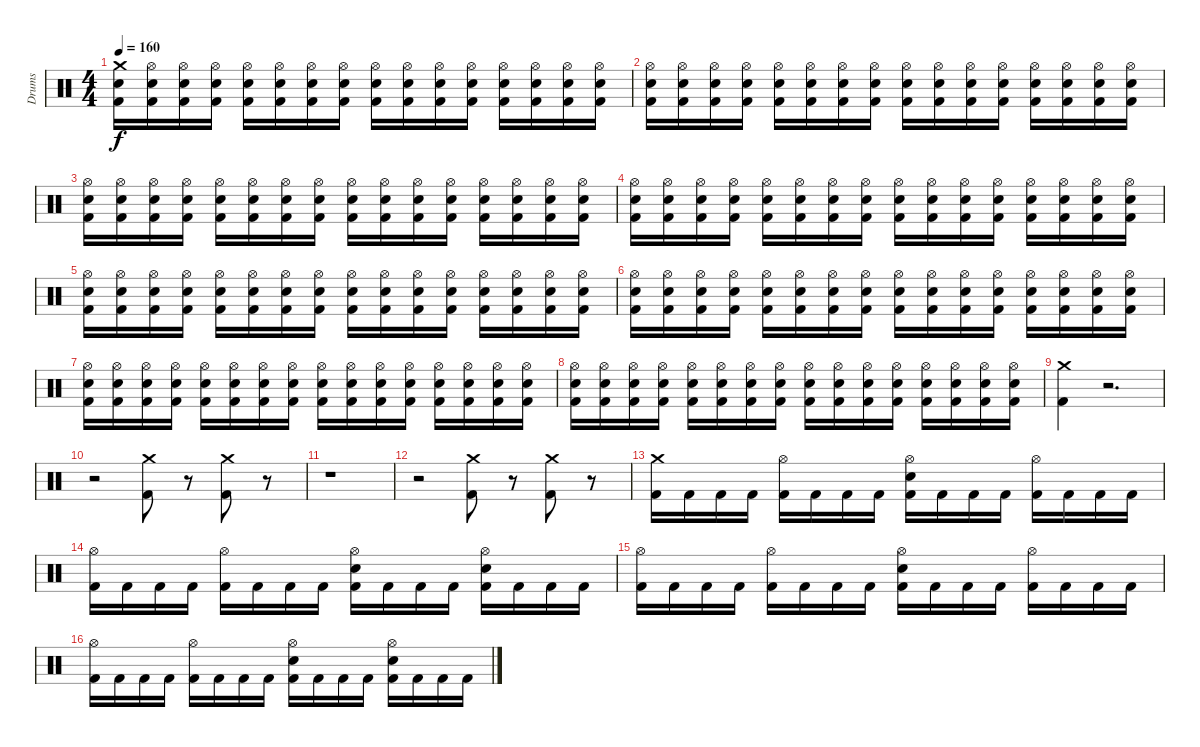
\track ("Drums" "Drums") {instrument percussion}
\staff {score}
\articulation defaults
\ts (4 4)
\tempo 160
\clef neutral
\ks c
("Crash medium (hit)" "Electric Snare (hit)" "Kick (hit) 2").16{dy f} ("Hi-Hat (open)" "Electric Snare (hit)" "Kick (hit) 2").16 ("Hi-Hat (open)" "Electric Snare (hit)" "Kick (hit) 2").16 ("Hi-Hat (open)" "Electric Snare (hit)" "Kick (hit) 2").16 ("Hi-Hat (open)" "Electric Snare (hit)" "Kick (hit) 2").16 ("Hi-Hat (open)" "Electric Snare (hit)" "Kick (hit) 2").16 ("Hi-Hat (open)" "Electric Snare (hit)" "Kick (hit) 2").16 ("Hi-Hat (open)" "Electric Snare (hit)" "Kick (hit) 2").16 ("Hi-Hat (open)" "Electric Snare (hit)" "Kick (hit) 2").16 ("Hi-Hat (open)" "Electric Snare (hit)" "Kick (hit) 2").16 ("Hi-Hat (open)" "Electric Snare (hit)" "Kick (hit) 2").16 ("Hi-Hat (open)" "Electric Snare (hit)" "Kick (hit) 2").16 ("Hi-Hat (open)" "Electric Snare (hit)" "Kick (hit) 2").16 ("Hi-Hat (open)" "Electric Snare (hit)" "Kick (hit) 2").16 ("Hi-Hat (open)" "Electric Snare (hit)" "Kick (hit) 2").16 ("Hi-Hat (open)" "Electric Snare (hit)" "Kick (hit) 2").16 |
("Hi-Hat (open)" "Electric Snare (hit)" "Kick (hit) 2").16 ("Hi-Hat (open)" "Electric Snare (hit)" "Kick (hit) 2").16 ("Hi-Hat (open)" "Electric Snare (hit)" "Kick (hit) 2").16 ("Hi-Hat (open)" "Electric Snare (hit)" "Kick (hit) 2").16 ("Hi-Hat (open)" "Electric Snare (hit)" "Kick (hit) 2").16 ("Hi-Hat (open)" "Electric Snare (hit)" "Kick (hit) 2").16 ("Hi-Hat (open)" "Electric Snare (hit)" "Kick (hit) 2").16 ("Hi-Hat (open)" "Electric Snare (hit)" "Kick (hit) 2").16 ("Hi-Hat (open)" "Electric Snare (hit)" "Kick (hit) 2").16 ("Hi-Hat (open)" "Electric Snare (hit)" "Kick (hit) 2").16 ("Hi-Hat (open)" "Electric Snare (hit)" "Kick (hit) 2").16 ("Hi-Hat (open)" "Electric Snare (hit)" "Kick (hit) 2").16 ("Hi-Hat (open)" "Electric Snare (hit)" "Kick (hit) 2").16 ("Hi-Hat (open)" "Electric Snare (hit)" "Kick (hit) 2").16 ("Hi-Hat (open)" "Electric Snare (hit)" "Kick (hit) 2").16 ("Hi-Hat (open)" "Electric Snare (hit)" "Kick (hit) 2").16 |
("Hi-Hat (open)" "Electric Snare (hit)" "Kick (hit) 2").16 ("Hi-Hat (open)" "Electric Snare (hit)" "Kick (hit) 2").16 ("Hi-Hat (open)" "Electric Snare (hit)" "Kick (hit) 2").16 ("Hi-Hat (open)" "Electric Snare (hit)" "Kick (hit) 2").16 ("Hi-Hat (open)" "Electric Snare (hit)" "Kick (hit) 2").16 ("Hi-Hat (open)" "Electric Snare (hit)" "Kick (hit) 2").16 ("Hi-Hat (open)" "Electric Snare (hit)" "Kick (hit) 2").16 ("Hi-Hat (open)" "Electric Snare (hit)" "Kick (hit) 2").16 ("Hi-Hat (open)" "Electric Snare (hit)" "Kick (hit) 2").16 ("Hi-Hat (open)" "Electric Snare (hit)" "Kick (hit) 2").16 ("Hi-Hat (open)" "Electric Snare (hit)" "Kick (hit) 2").16 ("Hi-Hat (open)" "Electric Snare (hit)" "Kick (hit) 2").16 ("Hi-Hat (open)" "Electric Snare (hit)" "Kick (hit) 2").16 ("Hi-Hat (open)" "Electric Snare (hit)" "Kick (hit) 2").16 ("Hi-Hat (open)" "Electric Snare (hit)" "Kick (hit) 2").16 ("Hi-Hat (open)" "Electric Snare (hit)" "Kick (hit) 2").16 |
("Hi-Hat (open)" "Electric Snare (hit)" "Kick (hit) 2").16 ("Hi-Hat (open)" "Electric Snare (hit)" "Kick (hit) 2").16 ("Hi-Hat (open)" "Electric Snare (hit)" "Kick (hit) 2").16 ("Hi-Hat (open)" "Electric Snare (hit)" "Kick (hit) 2").16 ("Hi-Hat (open)" "Electric Snare (hit)" "Kick (hit) 2").16 ("Hi-Hat (open)" "Electric Snare (hit)" "Kick (hit) 2").16 ("Hi-Hat (open)" "Electric Snare (hit)" "Kick (hit) 2").16 ("Hi-Hat (open)" "Electric Snare (hit)" "Kick (hit) 2").16 ("Hi-Hat (open)" "Electric Snare (hit)" "Kick (hit) 2").16 ("Hi-Hat (open)" "Electric Snare (hit)" "Kick (hit) 2").16 ("Hi-Hat (open)" "Electric Snare (hit)" "Kick (hit) 2").16 ("Hi-Hat (open)" "Electric Snare (hit)" "Kick (hit) 2").16 ("Hi-Hat (open)" "Electric Snare (hit)" "Kick (hit) 2").16 ("Hi-Hat (open)" "Electric Snare (hit)" "Kick (hit) 2").16 ("Hi-Hat (open)" "Electric Snare (hit)" "Kick (hit) 2").16 ("Hi-Hat (open)" "Electric Snare (hit)" "Kick (hit) 2").16 |
("Hi-Hat (open)" "Electric Snare (hit)" "Kick (hit) 2").16 ("Hi-Hat (open)" "Electric Snare (hit)" "Kick (hit) 2").16 ("Hi-Hat (open)" "Electric Snare (hit)" "Kick (hit) 2").16 ("Hi-Hat (open)" "Electric Snare (hit)" "Kick (hit) 2").16 ("Hi-Hat (open)" "Electric Snare (hit)" "Kick (hit) 2").16 ("Hi-Hat (open)" "Electric Snare (hit)" "Kick (hit) 2").16 ("Hi-Hat (open)" "Electric Snare (hit)" "Kick (hit) 2").16 ("Hi-Hat (open)" "Electric Snare (hit)" "Kick (hit) 2").16 ("Hi-Hat (open)" "Electric Snare (hit)" "Kick (hit) 2").16 ("Hi-Hat (open)" "Electric Snare (hit)" "Kick (hit) 2").16 ("Hi-Hat (open)" "Electric Snare (hit)" "Kick (hit) 2").16 ("Hi-Hat (open)" "Electric Snare (hit)" "Kick (hit) 2").16 ("Hi-Hat (open)" "Electric Snare (hit)" "Kick (hit) 2").16 ("Hi-Hat (open)" "Electric Snare (hit)" "Kick (hit) 2").16 ("Hi-Hat (open)" "Electric Snare (hit)" "Kick (hit) 2").16 ("Hi-Hat (open)" "Electric Snare (hit)" "Kick (hit) 2").16 |
("Hi-Hat (open)" "Electric Snare (hit)" "Kick (hit) 2").16 ("Hi-Hat (open)" "Electric Snare (hit)" "Kick (hit) 2").16 ("Hi-Hat (open)" "Electric Snare (hit)" "Kick (hit) 2").16 ("Hi-Hat (open)" "Electric Snare (hit)" "Kick (hit) 2").16 ("Hi-Hat (open)" "Electric Snare (hit)" "Kick (hit) 2").16 ("Hi-Hat (open)" "Electric Snare (hit)" "Kick (hit) 2").16 ("Hi-Hat (open)" "Electric Snare (hit)" "Kick (hit) 2").16 ("Hi-Hat (open)" "Electric Snare (hit)" "Kick (hit) 2").16 ("Hi-Hat (open)" "Electric Snare (hit)" "Kick (hit) 2").16 ("Hi-Hat (open)" "Electric Snare (hit)" "Kick (hit) 2").16 ("Hi-Hat (open)" "Electric Snare (hit)" "Kick (hit) 2").16 ("Hi-Hat (open)" "Electric Snare (hit)" "Kick (hit) 2").16 ("Hi-Hat (open)" "Electric Snare (hit)" "Kick (hit) 2").16 ("Hi-Hat (open)" "Electric Snare (hit)" "Kick (hit) 2").16 ("Hi-Hat (open)" "Electric Snare (hit)" "Kick (hit) 2").16 ("Hi-Hat (open)" "Electric Snare (hit)" "Kick (hit) 2").16 |
("Hi-Hat (open)" "Electric Snare (hit)" "Kick (hit) 2").16 ("Hi-Hat (open)" "Electric Snare (hit)" "Kick (hit) 2").16 ("Hi-Hat (open)" "Electric Snare (hit)" "Kick (hit) 2").16 ("Hi-Hat (open)" "Electric Snare (hit)" "Kick (hit) 2").16 ("Hi-Hat (open)" "Electric Snare (hit)" "Kick (hit) 2").16 ("Hi-Hat (open)" "Electric Snare (hit)" "Kick (hit) 2").16 ("Hi-Hat (open)" "Electric Snare (hit)" "Kick (hit) 2").16 ("Hi-Hat (open)" "Electric Snare (hit)" "Kick (hit) 2").16 ("Hi-Hat (open)" "Electric Snare (hit)" "Kick (hit) 2").16 ("Hi-Hat (open)" "Electric Snare (hit)" "Kick (hit) 2").16 ("Hi-Hat (open)" "Electric Snare (hit)" "Kick (hit) 2").16 ("Hi-Hat (open)" "Electric Snare (hit)" "Kick (hit) 2").16 ("Hi-Hat (open)" "Electric Snare (hit)" "Kick (hit) 2").16 ("Hi-Hat (open)" "Electric Snare (hit)" "Kick (hit) 2").16 ("Hi-Hat (open)" "Electric Snare (hit)" "Kick (hit) 2").16 ("Hi-Hat (open)" "Electric Snare (hit)" "Kick (hit) 2").16 |
("Hi-Hat (open)" "Electric Snare (hit)" "Kick (hit) 2").16 ("Hi-Hat (open)" "Electric Snare (hit)" "Kick (hit) 2").16 ("Hi-Hat (open)" "Electric Snare (hit)" "Kick (hit) 2").16 ("Hi-Hat (open)" "Electric Snare (hit)" "Kick (hit) 2").16 ("Hi-Hat (open)" "Electric Snare (hit)" "Kick (hit) 2").16 ("Hi-Hat (open)" "Electric Snare (hit)" "Kick (hit) 2").16 ("Hi-Hat (open)" "Electric Snare (hit)" "Kick (hit) 2").16 ("Hi-Hat (open)" "Electric Snare (hit)" "Kick (hit) 2").16 ("Hi-Hat (open)" "Electric Snare (hit)" "Kick (hit) 2").16 ("Hi-Hat (open)" "Electric Snare (hit)" "Kick (hit) 2").16 ("Hi-Hat (open)" "Electric Snare (hit)" "Kick (hit) 2").16 ("Hi-Hat (open)" "Electric Snare (hit)" "Kick (hit) 2").16 ("Hi-Hat (open)" "Electric Snare (hit)" "Kick (hit) 2").16 ("Hi-Hat (open)" "Electric Snare (hit)" "Kick (hit) 2").16 ("Hi-Hat (open)" "Electric Snare (hit)" "Kick (hit) 2").16 ("Hi-Hat (open)" "Electric Snare (hit)" "Kick (hit) 2").16 |
("Crash medium (hit)" "Kick (hit) 2").4 r.2{d} |
r.2 ("Crash medium (hit)" "Kick (hit) 2").8 r.8 ("Kick (hit) 2" "Crash medium (hit)").8 r.8 |
r.1 |
r.2 ("Crash medium (hit)" "Kick (hit) 2").8 r.8 ("Kick (hit) 2" "Crash medium (hit)").8 r.8 |
("Crash medium (hit)" "Kick (hit) 2").16 "Kick (hit) 2".16 "Kick (hit) 2".16 "Kick (hit) 2".16 ("Hi-Hat (open)" "Kick (hit) 2").16 "Kick (hit) 2".16 "Kick (hit) 2".16 "Kick (hit) 2".16 ("Hi-Hat (open)" "Electric Snare (hit)" "Kick (hit) 2").16 "Kick (hit) 2".16 "Kick (hit) 2".16 "Kick (hit) 2".16 ("Hi-Hat (open)" "Kick (hit) 2").16 "Kick (hit) 2".16 "Kick (hit) 2".16 "Kick (hit) 2".16 |
("Hi-Hat (open)" "Kick (hit) 2").16 "Kick (hit) 2".16 "Kick (hit) 2".16 "Kick (hit) 2".16 ("Hi-Hat (open)" "Kick (hit) 2").16 "Kick (hit) 2".16 "Kick (hit) 2".16 "Kick (hit) 2".16 ("Hi-Hat (open)" "Electric Snare (hit)" "Kick (hit) 2").16 "Kick (hit) 2".16 "Kick (hit) 2".16 "Kick (hit) 2".16 ("Electric Snare (hit)" "Hi-Hat (open)" "Kick (hit) 2").16 "Kick (hit) 2".16 "Kick (hit) 2".16 "Kick (hit) 2".16 |
("Hi-Hat (open)" "Kick (hit) 2").16 "Kick (hit) 2".16 "Kick (hit) 2".16 "Kick (hit) 2".16 ("Hi-Hat (open)" "Kick (hit) 2").16 "Kick (hit) 2".16 "Kick (hit) 2".16 "Kick (hit) 2".16 ("Hi-Hat (open)" "Electric Snare (hit)" "Kick (hit) 2").16 "Kick (hit) 2".16 "Kick (hit) 2".16 "Kick (hit) 2".16 ("Hi-Hat (open)" "Kick (hit) 2").16 "Kick (hit) 2".16 "Kick (hit) 2".16 "Kick (hit) 2".16 |
("Hi-Hat (open)" "Kick (hit) 2").16 "Kick (hit) 2".16 "Kick (hit) 2".16 "Kick (hit) 2".16 ("Hi-Hat (open)" "Kick (hit) 2").16 "Kick (hit) 2".16 "Kick (hit) 2".16 "Kick (hit) 2".16 ("Hi-Hat (open)" "Electric Snare (hit)" "Kick (hit) 2").16 "Kick (hit) 2".16 "Kick (hit) 2".16 "Kick (hit) 2".16 ("Electric Snare (hit)" "Hi-Hat (open)" "Kick (hit) 2").16 "Kick (hit) 2".16 "Kick (hit) 2".16 "Kick (hit) 2".16
